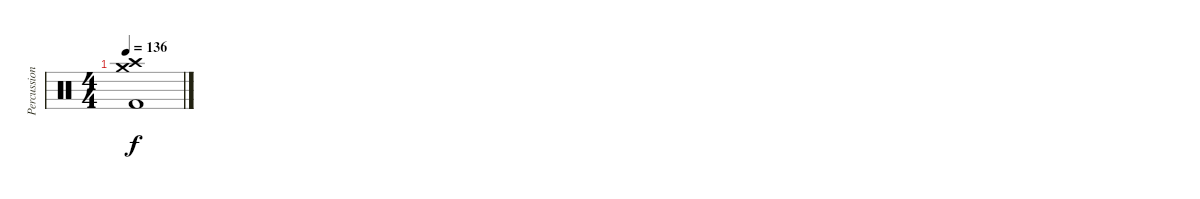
\track ("Percussion" "Percussion") {instrument percussion}
\staff {score}
\articulation defaults
\ts (4 4)
\tempo 136
\clef neutral
\ks c
("Crash high (hit)" "Crash medium (hit)" "Kick (hit) 2").1{dy f}
